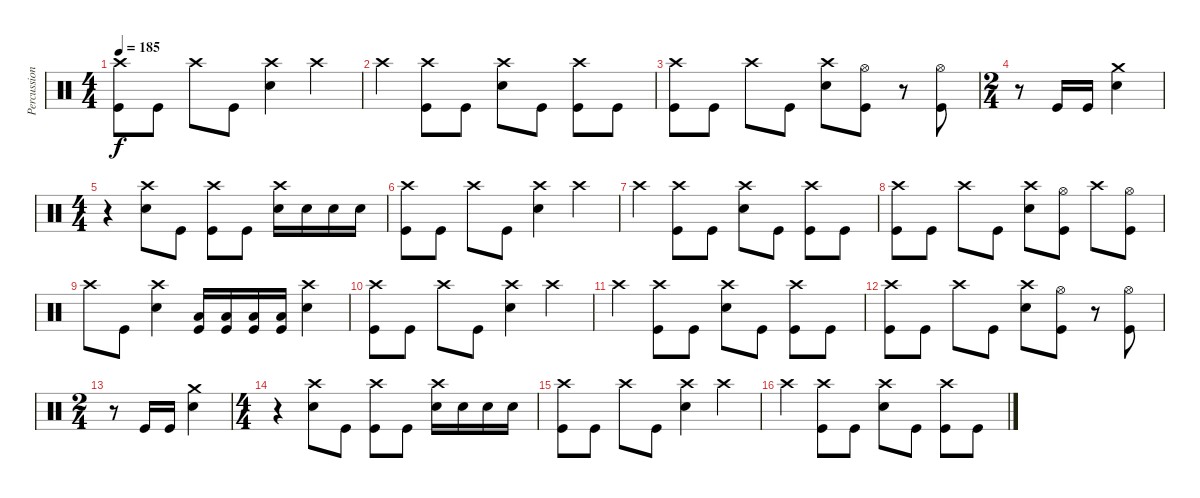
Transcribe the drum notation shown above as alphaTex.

\track ("Percussion" "Percussion") {instrument percussion}
\staff {score}
\articulation defaults
\ts (4 4)
\tempo 185
\clef neutral
\ks c
("Crash high (hit)" "Kick (hit)").8{dy f} "Kick (hit)".8 "Crash high (hit)".8 "Kick (hit)".8 ("Crash high (hit)" "Snare (hit) 2").4 "Crash high (hit)".4 |
"Crash high (hit)".4 ("Crash high (hit)" "Kick (hit)").8 "Kick (hit)".8 ("Crash high (hit)" "Snare (hit) 2").8 "Kick (hit)".8 ("Crash high (hit)" "Kick (hit)").8 "Kick (hit)".8 |
("Crash high (hit)" "Kick (hit)").8 "Kick (hit)".8 "Crash high (hit)".8 "Kick (hit)".8 ("Crash high (hit)" "Snare (hit) 2").8 ("Hi-Hat (open)" "Kick (hit)").8{volume 13} r.8{volume 0} ("Hi-Hat (open)" "Kick (hit)").8{volume 13} |
\ts (2 4)
r.8{volume 0} "Kick (hit)".16{volume 13} "Kick (hit)".16 ("Crash medium (hit)" "Snare (hit) 2").4 |
\ts (4 4)
r.4 ("Crash high (hit)" "Snare (hit) 2").8 "Kick (hit)".8 ("Crash high (hit)" "Kick (hit)").8 "Kick (hit)".8 ("Crash high (hit)" "Snare (hit) 2").16 "Snare (hit) 2".16 "Snare (hit) 2".16 "Snare (hit) 2".16 |
("Crash high (hit)" "Kick (hit)").8 "Kick (hit)".8 "Crash high (hit)".8 "Kick (hit)".8 ("Crash high (hit)" "Snare (hit) 2").4 "Crash high (hit)".4 |
"Crash high (hit)".4 ("Crash high (hit)" "Kick (hit)").8 "Kick (hit)".8 ("Crash high (hit)" "Snare (hit) 2").8 "Kick (hit)".8 ("Crash high (hit)" "Kick (hit)").8 "Kick (hit)".8 |
("Crash high (hit)" "Kick (hit)").8 "Kick (hit)".8 "Crash high (hit)".8 "Kick (hit)".8 ("Crash high (hit)" "Snare (hit) 2").8 ("Hi-Hat (open)" "Kick (hit)").8{volume 13} "Crash high (hit)".8{volume 5} ("Hi-Hat (open)" "Kick (hit)").8{volume 13} |
"Crash high (hit)".8 "Kick (hit)".8 ("Crash high (hit)" "Snare (hit) 2").4 ("Low Floor Tom (hit)" "Kick (hit)").16 ("Low Floor Tom (hit)" "Kick (hit)").16 ("Low Floor Tom (hit)" "Kick (hit)").16 ("Low Floor Tom (hit)" "Kick (hit)").16 ("Crash high (hit)" "Snare (hit) 2").4 |
("Crash high (hit)" "Kick (hit)").8 "Kick (hit)".8 "Crash high (hit)".8 "Kick (hit)".8 ("Crash high (hit)" "Snare (hit) 2").4 "Crash high (hit)".4 |
"Crash high (hit)".4 ("Crash high (hit)" "Kick (hit)").8 "Kick (hit)".8 ("Crash high (hit)" "Snare (hit) 2").8 "Kick (hit)".8 ("Crash high (hit)" "Kick (hit)").8 "Kick (hit)".8 |
("Crash high (hit)" "Kick (hit)").8 "Kick (hit)".8 "Crash high (hit)".8 "Kick (hit)".8 ("Crash high (hit)" "Snare (hit) 2").8 ("Hi-Hat (open)" "Kick (hit)").8{volume 13} r.8{volume 0} ("Hi-Hat (open)" "Kick (hit)").8{volume 13} |
\ts (2 4)
r.8{volume 0} "Kick (hit)".16{volume 13} "Kick (hit)".16 ("Crash medium (hit)" "Snare (hit) 2").4 |
\ts (4 4)
r.4 ("Crash high (hit)" "Snare (hit) 2").8 "Kick (hit)".8 ("Crash high (hit)" "Kick (hit)").8 "Kick (hit)".8 ("Crash high (hit)" "Snare (hit) 2").16 "Snare (hit) 2".16 "Snare (hit) 2".16 "Snare (hit) 2".16 |
("Crash high (hit)" "Kick (hit)").8 "Kick (hit)".8 "Crash high (hit)".8 "Kick (hit)".8 ("Crash high (hit)" "Snare (hit) 2").4 "Crash high (hit)".4 |
"Crash high (hit)".4 ("Crash high (hit)" "Kick (hit)").8 "Kick (hit)".8 ("Crash high (hit)" "Snare (hit) 2").8 "Kick (hit)".8 ("Crash high (hit)" "Kick (hit)").8 "Kick (hit)".8
